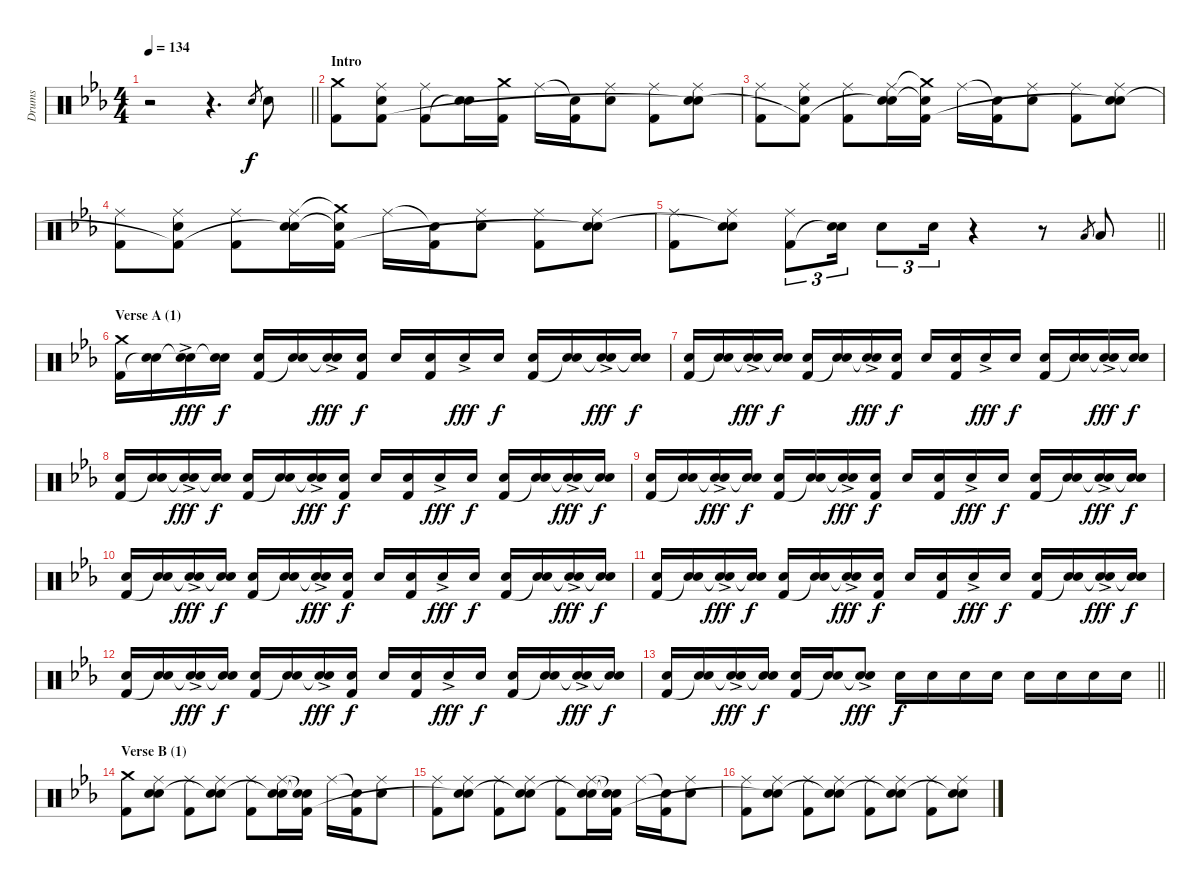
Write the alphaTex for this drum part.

\track ("Drums" "Drums") {instrument percussion}
\staff {score}
\articulation defaults
\ts (4 4)
\tempo 134
\clef neutral
\barLineRight lightlight
\ks eb
r.2{dy f} r.4{d} "Electric Snare (hit)".8{gr} "Electric Snare (hit)".8 |
\section ("" "Intro")
("Crash medium (hit)" "Kick (hit) 2").8 ("Ride (middle)" "Electric Snare (hit)" "Kick (hit) 2").8 ("Ride (middle)" "Kick (hit) 2").8 ("Electric Snare (hit)" "Snare (hit)"{t}).16 ("Crash medium (hit)" "Kick (hit) 2").16 "Ride (middle)".16 ("Snare (hit)"{t} "Kick (hit) 2").16 ("Ride (middle)" "Electric Snare (hit)").8 ("Ride (middle)" "Kick (hit) 2").8 ("Ride (middle)" "Electric Snare (hit)" "Snare (hit)"{t}).8 |
("Ride (middle)" "Kick (hit) 2").8 ("Ride (middle)" "Electric Snare (hit)" "Kick (hit) 2"{t}).8 ("Ride (middle)" "Kick (hit) 2").8 ("Ride (middle)" "Electric Snare (hit)" "Snare (hit)"{t}).16 ("Crash medium (hit)"{t} "Snare (hit)"{t} "Kick (hit) 2").16 "Ride (middle)".16 ("Snare (hit)"{t} "Kick (hit) 2").16 ("Ride (middle)" "Electric Snare (hit)").8 ("Ride (middle)" "Kick (hit) 2").8 ("Ride (middle)" "Electric Snare (hit)" "Snare (hit)"{t}).8 |
("Ride (middle)" "Kick (hit) 2").8 ("Ride (middle)" "Electric Snare (hit)" "Kick (hit) 2"{t}).8 ("Ride (middle)" "Kick (hit) 2").8 ("Ride (middle)" "Electric Snare (hit)" "Snare (hit)"{t}).16 ("Crash medium (hit)"{t} "Snare (hit)"{t} "Kick (hit) 2").16 "Ride (middle)".16 ("Snare (hit)"{t} "Kick (hit) 2").16 ("Ride (middle)" "Electric Snare (hit)").8 ("Ride (middle)" "Kick (hit) 2").8 ("Ride (middle)" "Electric Snare (hit)" "Snare (hit)"{t}).8 |
\barLineRight lightlight
("Ride (middle)" "Kick (hit) 2").8 ("Ride (middle)" "Electric Snare (hit)" "Snare (hit)"{t}).8 ("Ride (middle)" "Kick (hit) 2").8{tu (3 2)} ("Electric Snare (hit)" "Snare (hit)"{t}).16{tu (3 2)} "Electric Snare (hit)".8{tu (3 2)} "Electric Snare (hit)".16{tu (3 2)} r.4 r.8 "Low Floor Tom (hit)".8{gr} "Low Floor Tom (hit)".8 |
\section ("" "Verse A (1)")
("Crash medium (hit)" "Kick (hit) 2").16 ("Electric Snare (hit)" "Snare (hit)"{t}).16 ("Electric Snare (hit)"{ac} "Snare (hit)"{t}).16{dy fff} ("Electric Snare (hit)" "Snare (hit)"{t}).16{dy f} ("Electric Snare (hit)" "Kick (hit) 2").16 ("Electric Snare (hit)" "Snare (hit)"{t}).16 ("Electric Snare (hit)"{ac} "Snare (hit)"{t}).16{dy fff} ("Electric Snare (hit)" "Kick (hit) 2").16{dy f} "Electric Snare (hit)".16 ("Electric Snare (hit)" "Kick (hit) 2").16 "Electric Snare (hit)"{ac}.16{dy fff} "Electric Snare (hit)".16{dy f} ("Electric Snare (hit)" "Kick (hit) 2").16 ("Electric Snare (hit)" "Snare (hit)"{t}).16 ("Electric Snare (hit)"{ac} "Snare (hit)"{t}).16{dy fff} ("Electric Snare (hit)" "Snare (hit)"{t}).16{dy f} |
("Electric Snare (hit)" "Kick (hit) 2").16 ("Electric Snare (hit)" "Snare (hit)"{t}).16 ("Electric Snare (hit)"{ac} "Snare (hit)"{t}).16{dy fff} ("Electric Snare (hit)" "Snare (hit)"{t}).16{dy f} ("Electric Snare (hit)" "Kick (hit) 2").16 ("Electric Snare (hit)" "Snare (hit)"{t}).16 ("Electric Snare (hit)"{ac} "Snare (hit)"{t}).16{dy fff} ("Electric Snare (hit)" "Kick (hit) 2").16{dy f} "Electric Snare (hit)".16 ("Electric Snare (hit)" "Kick (hit) 2").16 "Electric Snare (hit)"{ac}.16{dy fff} "Electric Snare (hit)".16{dy f} ("Electric Snare (hit)" "Kick (hit) 2").16 ("Electric Snare (hit)" "Snare (hit)"{t}).16 ("Electric Snare (hit)"{ac} "Snare (hit)"{t}).16{dy fff} ("Electric Snare (hit)" "Snare (hit)"{t}).16{dy f} |
("Electric Snare (hit)" "Kick (hit) 2").16 ("Electric Snare (hit)" "Snare (hit)"{t}).16 ("Electric Snare (hit)"{ac} "Snare (hit)"{t}).16{dy fff} ("Electric Snare (hit)" "Snare (hit)"{t}).16{dy f} ("Electric Snare (hit)" "Kick (hit) 2").16 ("Electric Snare (hit)" "Snare (hit)"{t}).16 ("Electric Snare (hit)"{ac} "Snare (hit)"{t}).16{dy fff} ("Electric Snare (hit)" "Kick (hit) 2").16{dy f} "Electric Snare (hit)".16 ("Electric Snare (hit)" "Kick (hit) 2").16 "Electric Snare (hit)"{ac}.16{dy fff} "Electric Snare (hit)".16{dy f} ("Electric Snare (hit)" "Kick (hit) 2").16 ("Electric Snare (hit)" "Snare (hit)"{t}).16 ("Electric Snare (hit)"{ac} "Snare (hit)"{t}).16{dy fff} ("Electric Snare (hit)" "Snare (hit)"{t}).16{dy f} |
("Electric Snare (hit)" "Kick (hit) 2").16 ("Electric Snare (hit)" "Snare (hit)"{t}).16 ("Electric Snare (hit)"{ac} "Snare (hit)"{t}).16{dy fff} ("Electric Snare (hit)" "Snare (hit)"{t}).16{dy f} ("Electric Snare (hit)" "Kick (hit) 2").16 ("Electric Snare (hit)" "Snare (hit)"{t}).16 ("Electric Snare (hit)"{ac} "Snare (hit)"{t}).16{dy fff} ("Electric Snare (hit)" "Kick (hit) 2").16{dy f} "Electric Snare (hit)".16 ("Electric Snare (hit)" "Kick (hit) 2").16 "Electric Snare (hit)"{ac}.16{dy fff} "Electric Snare (hit)".16{dy f} ("Electric Snare (hit)" "Kick (hit) 2").16 ("Electric Snare (hit)" "Snare (hit)"{t}).16 ("Electric Snare (hit)"{ac} "Snare (hit)"{t}).16{dy fff} ("Electric Snare (hit)" "Snare (hit)"{t}).16{dy f} |
("Electric Snare (hit)" "Kick (hit) 2").16 ("Electric Snare (hit)" "Snare (hit)"{t}).16 ("Electric Snare (hit)"{ac} "Snare (hit)"{t}).16{dy fff} ("Electric Snare (hit)" "Snare (hit)"{t}).16{dy f} ("Electric Snare (hit)" "Kick (hit) 2").16 ("Electric Snare (hit)" "Snare (hit)"{t}).16 ("Electric Snare (hit)"{ac} "Snare (hit)"{t}).16{dy fff} ("Electric Snare (hit)" "Kick (hit) 2").16{dy f} "Electric Snare (hit)".16 ("Electric Snare (hit)" "Kick (hit) 2").16 "Electric Snare (hit)"{ac}.16{dy fff} "Electric Snare (hit)".16{dy f} ("Electric Snare (hit)" "Kick (hit) 2").16 ("Electric Snare (hit)" "Snare (hit)"{t}).16 ("Electric Snare (hit)"{ac} "Snare (hit)"{t}).16{dy fff} ("Electric Snare (hit)" "Snare (hit)"{t}).16{dy f} |
("Electric Snare (hit)" "Kick (hit) 2").16 ("Electric Snare (hit)" "Snare (hit)"{t}).16 ("Electric Snare (hit)"{ac} "Snare (hit)"{t}).16{dy fff} ("Electric Snare (hit)" "Snare (hit)"{t}).16{dy f} ("Electric Snare (hit)" "Kick (hit) 2").16 ("Electric Snare (hit)" "Snare (hit)"{t}).16 ("Electric Snare (hit)"{ac} "Snare (hit)"{t}).16{dy fff} ("Electric Snare (hit)" "Kick (hit) 2").16{dy f} "Electric Snare (hit)".16 ("Electric Snare (hit)" "Kick (hit) 2").16 "Electric Snare (hit)"{ac}.16{dy fff} "Electric Snare (hit)".16{dy f} ("Electric Snare (hit)" "Kick (hit) 2").16 ("Electric Snare (hit)" "Snare (hit)"{t}).16 ("Electric Snare (hit)"{ac} "Snare (hit)"{t}).16{dy fff} ("Electric Snare (hit)" "Snare (hit)"{t}).16{dy f} |
("Electric Snare (hit)" "Kick (hit) 2").16 ("Electric Snare (hit)" "Snare (hit)"{t}).16 ("Electric Snare (hit)"{ac} "Snare (hit)"{t}).16{dy fff} ("Electric Snare (hit)" "Snare (hit)"{t}).16{dy f} ("Electric Snare (hit)" "Kick (hit) 2").16 ("Electric Snare (hit)" "Snare (hit)"{t}).16 ("Electric Snare (hit)"{ac} "Snare (hit)"{t}).16{dy fff} ("Electric Snare (hit)" "Kick (hit) 2").16{dy f} "Electric Snare (hit)".16 ("Electric Snare (hit)" "Kick (hit) 2").16 "Electric Snare (hit)"{ac}.16{dy fff} "Electric Snare (hit)".16{dy f} ("Electric Snare (hit)" "Kick (hit) 2").16 ("Electric Snare (hit)" "Snare (hit)"{t}).16 ("Electric Snare (hit)"{ac} "Snare (hit)"{t}).16{dy fff} ("Electric Snare (hit)" "Snare (hit)"{t}).16{dy f} |
\barLineRight lightlight
("Electric Snare (hit)" "Kick (hit) 2").16 ("Electric Snare (hit)" "Snare (hit)"{t}).16 ("Electric Snare (hit)"{ac} "Snare (hit)"{t}).16{dy fff} ("Electric Snare (hit)" "Snare (hit)"{t}).16{dy f} ("Electric Snare (hit)" "Kick (hit) 2").16 ("Electric Snare (hit)" "Snare (hit)"{t}).16 ("Electric Snare (hit)"{ac} "Snare (hit)"{t}).8{dy fff} "Electric Snare (hit)".16{dy f} "Electric Snare (hit)".16 "Electric Snare (hit)".16 "Electric Snare (hit)".16 "Electric Snare (hit)".16 "Electric Snare (hit)".16 "Electric Snare (hit)".16 "Electric Snare (hit)".16 |
\section ("" "Verse B (1)")
("Crash medium (hit)" "Kick (hit) 2").8 ("Ride (middle)" "Electric Snare (hit)" "Snare (hit)").8 ("Ride (middle)" "Kick (hit) 2").8 ("Ride (middle)" "Electric Snare (hit)" "Snare (hit)"{t}).8 ("Ride (middle)" "Kick (hit) 2").8 ("Ride (middle)" "Electric Snare (hit)" "Snare (hit)"{t}).16 ("Snare (hit)"{t} "Snare (hit)"{t} "Kick (hit) 2").16 "Ride (middle)".16 ("Snare (hit)"{t} "Kick (hit) 2").16 ("Ride (middle)" "Electric Snare (hit)").8 |
("Ride (middle)" "Kick (hit) 2").8 ("Ride (middle)" "Electric Snare (hit)" "Snare (hit)"{t}).8 ("Ride (middle)" "Kick (hit) 2").8 ("Ride (middle)" "Electric Snare (hit)" "Snare (hit)"{t}).8 ("Ride (middle)" "Kick (hit) 2").8 ("Ride (middle)" "Electric Snare (hit)" "Snare (hit)"{t}).16 ("Snare (hit)"{t} "Snare (hit)"{t} "Kick (hit) 2").16 "Ride (middle)".16 ("Snare (hit)"{t} "Kick (hit) 2").16 ("Ride (middle)" "Electric Snare (hit)").8 |
("Ride (middle)" "Kick (hit) 2").8 ("Ride (middle)" "Electric Snare (hit)" "Snare (hit)"{t}).8 ("Ride (middle)" "Kick (hit) 2").8 ("Ride (middle)" "Electric Snare (hit)" "Snare (hit)"{t}).8 ("Ride (middle)" "Kick (hit) 2").8 ("Ride (middle)" "Electric Snare (hit)" "Snare (hit)"{t}).8 ("Ride (middle)" "Kick (hit) 2").8 ("Ride (middle)" "Electric Snare (hit)" "Snare (hit)"{t}).8
